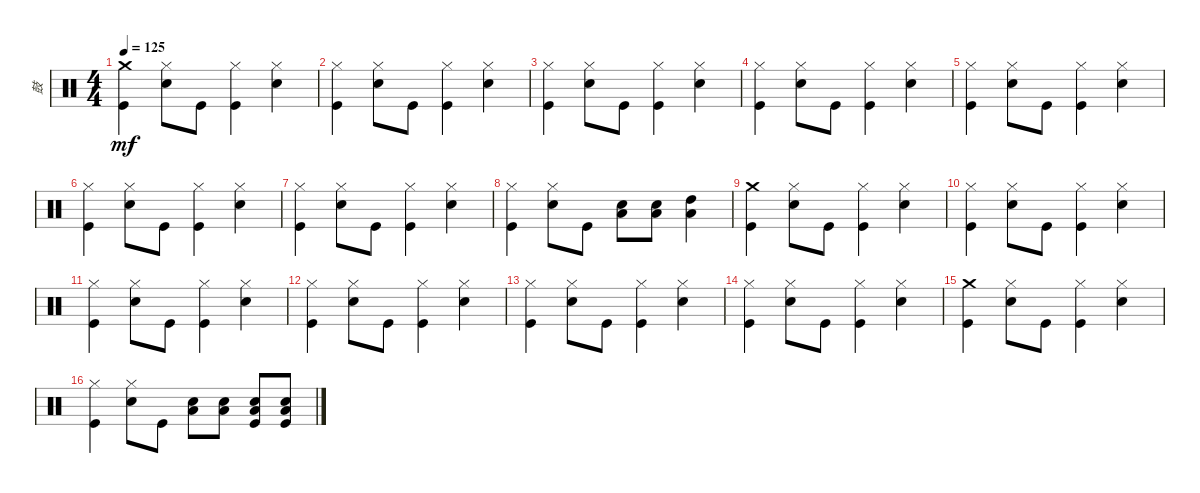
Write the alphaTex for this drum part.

\track ("鼓" "鼓") {instrument percussion}
\staff {score}
\articulation defaults
\ts (4 4)
\tempo 125
\clef neutral
\ks c
("Kick (hit)" "Crash medium (hit)").4{dy mf} ("Snare (hit) 2" "Hi-Hat (closed)").8 "Kick (hit)".8 ("Kick (hit)" "Hi-Hat (closed)").4 ("Snare (hit) 2" "Hi-Hat (closed)").4 |
("Kick (hit)" "Hi-Hat (closed)").4 ("Snare (hit) 2" "Hi-Hat (closed)").8 "Kick (hit)".8 ("Kick (hit)" "Hi-Hat (closed)").4 ("Snare (hit) 2" "Hi-Hat (closed)").4 |
("Kick (hit)" "Hi-Hat (closed)").4 ("Snare (hit) 2" "Hi-Hat (closed)").8 "Kick (hit)".8 ("Kick (hit)" "Hi-Hat (closed)").4 ("Snare (hit) 2" "Hi-Hat (closed)").4 |
("Kick (hit)" "Hi-Hat (closed)").4 ("Snare (hit) 2" "Hi-Hat (closed)").8 "Kick (hit)".8 ("Kick (hit)" "Hi-Hat (closed)").4 ("Snare (hit) 2" "Hi-Hat (closed)").4 |
("Kick (hit)" "Hi-Hat (closed)").4 ("Snare (hit) 2" "Hi-Hat (closed)").8 "Kick (hit)".8 ("Kick (hit)" "Hi-Hat (closed)").4 ("Snare (hit) 2" "Hi-Hat (closed)").4 |
("Kick (hit)" "Hi-Hat (closed)").4 ("Snare (hit) 2" "Hi-Hat (closed)").8 "Kick (hit)".8 ("Kick (hit)" "Hi-Hat (closed)").4 ("Snare (hit) 2" "Hi-Hat (closed)").4 |
("Kick (hit)" "Hi-Hat (closed)").4 ("Snare (hit) 2" "Hi-Hat (closed)").8 "Kick (hit)".8 ("Kick (hit)" "Hi-Hat (closed)").4 ("Snare (hit) 2" "Hi-Hat (closed)").4 |
("Kick (hit)" "Hi-Hat (closed)").4 ("Snare (hit) 2" "Hi-Hat (closed)").8 "Kick (hit)".8 ("Low Floor Tom (hit)" "Snare (hit) 2").8 ("Snare (hit) 2" "Low Floor Tom (hit)").8 ("Low Tom (hit)" "High Tom (hit)").4 |
("Kick (hit)" "Crash medium (hit)").4 ("Snare (hit) 2" "Hi-Hat (closed)").8 "Kick (hit)".8 ("Kick (hit)" "Hi-Hat (closed)").4 ("Snare (hit) 2" "Hi-Hat (closed)").4 |
("Kick (hit)" "Hi-Hat (closed)").4 ("Snare (hit) 2" "Hi-Hat (closed)").8 "Kick (hit)".8 ("Kick (hit)" "Hi-Hat (closed)").4 ("Snare (hit) 2" "Hi-Hat (closed)").4 |
("Kick (hit)" "Hi-Hat (closed)").4 ("Snare (hit) 2" "Hi-Hat (closed)").8 "Kick (hit)".8 ("Kick (hit)" "Hi-Hat (closed)").4 ("Snare (hit) 2" "Hi-Hat (closed)").4 |
("Kick (hit)" "Hi-Hat (closed)").4 ("Snare (hit) 2" "Hi-Hat (closed)").8 "Kick (hit)".8 ("Kick (hit)" "Hi-Hat (closed)").4 ("Snare (hit) 2" "Hi-Hat (closed)").4 |
("Kick (hit)" "Hi-Hat (closed)").4 ("Snare (hit) 2" "Hi-Hat (closed)").8 "Kick (hit)".8 ("Kick (hit)" "Hi-Hat (closed)").4 ("Snare (hit) 2" "Hi-Hat (closed)").4 |
("Kick (hit)" "Hi-Hat (closed)").4 ("Snare (hit) 2" "Hi-Hat (closed)").8 "Kick (hit)".8 ("Kick (hit)" "Hi-Hat (closed)").4 ("Snare (hit) 2" "Hi-Hat (closed)").4 |
("Kick (hit)" "Crash medium (hit)").4 ("Snare (hit) 2" "Hi-Hat (closed)").8 "Kick (hit)".8 ("Kick (hit)" "Hi-Hat (closed)").4 ("Snare (hit) 2" "Hi-Hat (closed)").4 |
("Kick (hit)" "Hi-Hat (closed)").4 ("Snare (hit) 2" "Hi-Hat (closed)").8 "Kick (hit)".8 ("Low Floor Tom (hit)" "Snare (hit) 2").8 ("Snare (hit) 2" "Low Floor Tom (hit)").8 ("Low Floor Tom (hit)" "Snare (hit) 2" "Kick (hit)").8 ("Snare (hit) 2" "Low Floor Tom (hit)" "Kick (hit)").8
